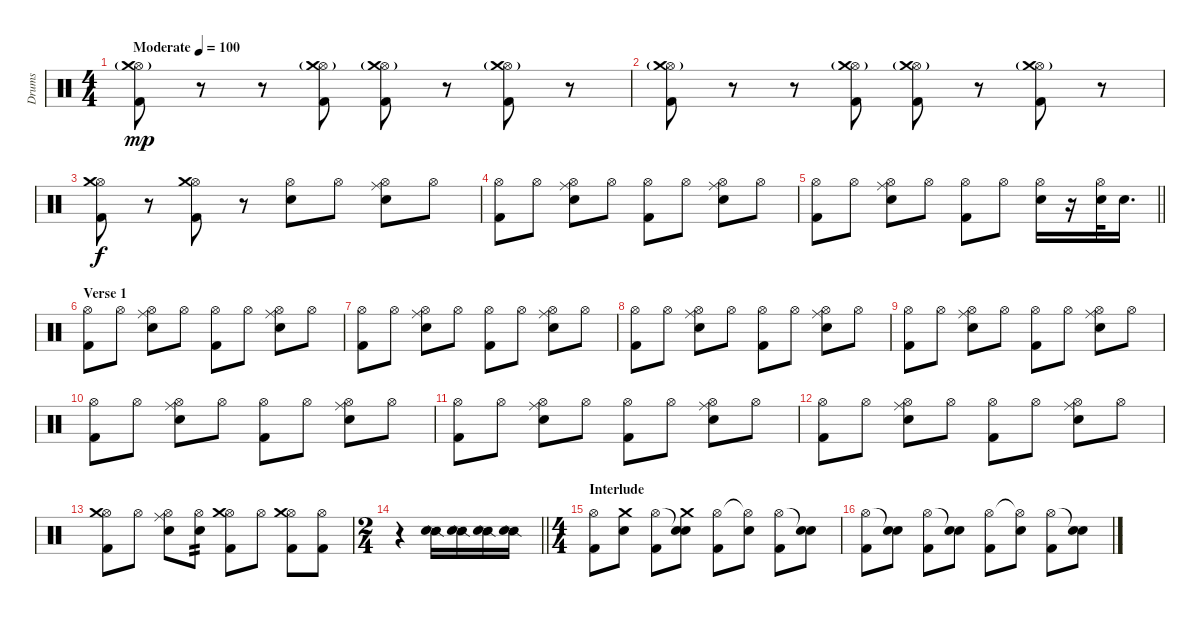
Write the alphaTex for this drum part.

\track ("Drums" "Drums") {instrument percussion}
\staff {score}
\articulation defaults
\ts (4 4)
\tempo (100 "Moderate")
\clef neutral
\ks c
("Hi-Hat (open)" "Crash medium (hit)"{g} "Kick (hit) 2").8{dy mp} r.8 r.8 ("Hi-Hat (open)" "Crash medium (hit)"{g} "Kick (hit) 2").8 ("Hi-Hat (open)" "Crash medium (hit)"{g} "Kick (hit) 2").8 r.8 ("Hi-Hat (open)" "Crash medium (hit)"{g} "Kick (hit) 2").8 r.8 |
("Hi-Hat (open)" "Crash medium (hit)"{g} "Kick (hit) 2").8 r.8 r.8 ("Hi-Hat (open)" "Crash medium (hit)"{g} "Kick (hit) 2").8 ("Hi-Hat (open)" "Crash medium (hit)"{g} "Kick (hit) 2").8 r.8 ("Hi-Hat (open)" "Crash medium (hit)"{g} "Kick (hit) 2").8 r.8 |
("Hi-Hat (open)" "Crash medium (hit)" "Kick (hit) 2").8{dy f} r.8 ("Hi-Hat (open)" "Crash medium (hit)" "Kick (hit) 2").8 r.8 ("Hi-Hat (open)" "Snare (hit) 2").8 "Hi-Hat (open)".8 ("Hi-Hat (open)" "Ride (middle)" "Snare (hit) 2").8 "Hi-Hat (open)".8 |
("Hi-Hat (open)" "Kick (hit) 2").8 "Hi-Hat (open)".8 ("Hi-Hat (open)" "Ride (middle)" "Snare (hit) 2").8 "Hi-Hat (open)".8 ("Hi-Hat (open)" "Kick (hit) 2").8 "Hi-Hat (open)".8 ("Hi-Hat (open)" "Ride (middle)" "Snare (hit) 2").8 "Hi-Hat (open)".8 |
\barLineRight lightlight
("Hi-Hat (open)" "Kick (hit) 2").8 "Hi-Hat (open)".8 ("Hi-Hat (open)" "Ride (middle)" "Snare (hit) 2").8 "Hi-Hat (open)".8 ("Hi-Hat (open)" "Kick (hit) 2").8 "Hi-Hat (open)".8 ("Hi-Hat (open)" "Snare (hit) 2").16 r.16 ("Hi-Hat (open)" "Snare (hit) 2").32 "Snare (hit) 2".16{d} |
\section ("" "Verse 1")
("Hi-Hat (open)" "Kick (hit) 2").8 "Hi-Hat (open)".8 ("Hi-Hat (open)" "Ride (middle)" "Snare (hit) 2").8 "Hi-Hat (open)".8 ("Hi-Hat (open)" "Kick (hit) 2").8 "Hi-Hat (open)".8 ("Hi-Hat (open)" "Ride (middle)" "Snare (hit) 2").8 "Hi-Hat (open)".8 |
("Hi-Hat (open)" "Kick (hit) 2").8 "Hi-Hat (open)".8 ("Hi-Hat (open)" "Ride (middle)" "Snare (hit) 2").8 "Hi-Hat (open)".8 ("Hi-Hat (open)" "Kick (hit) 2").8 "Hi-Hat (open)".8 ("Hi-Hat (open)" "Ride (middle)" "Snare (hit) 2").8 "Hi-Hat (open)".8 |
("Hi-Hat (open)" "Kick (hit) 2").8 "Hi-Hat (open)".8 ("Hi-Hat (open)" "Ride (middle)" "Snare (hit) 2").8 "Hi-Hat (open)".8 ("Hi-Hat (open)" "Kick (hit) 2").8 "Hi-Hat (open)".8 ("Hi-Hat (open)" "Ride (middle)" "Snare (hit) 2").8 "Hi-Hat (open)".8 |
("Hi-Hat (open)" "Kick (hit) 2").8 "Hi-Hat (open)".8 ("Hi-Hat (open)" "Ride (middle)" "Snare (hit) 2").8 "Hi-Hat (open)".8 ("Hi-Hat (open)" "Kick (hit) 2").8 "Hi-Hat (open)".8 ("Hi-Hat (open)" "Ride (middle)" "Snare (hit) 2").8 "Hi-Hat (open)".8 |
("Hi-Hat (open)" "Kick (hit) 2").8 "Hi-Hat (open)".8 ("Hi-Hat (open)" "Ride (middle)" "Snare (hit) 2").8 "Hi-Hat (open)".8 ("Hi-Hat (open)" "Kick (hit) 2").8 "Hi-Hat (open)".8 ("Hi-Hat (open)" "Ride (middle)" "Snare (hit) 2").8 "Hi-Hat (open)".8 |
("Hi-Hat (open)" "Kick (hit) 2").8 "Hi-Hat (open)".8 ("Hi-Hat (open)" "Ride (middle)" "Snare (hit) 2").8 "Hi-Hat (open)".8 ("Hi-Hat (open)" "Kick (hit) 2").8 "Hi-Hat (open)".8 ("Hi-Hat (open)" "Ride (middle)" "Snare (hit) 2").8 "Hi-Hat (open)".8 |
("Hi-Hat (open)" "Kick (hit) 2").8 "Hi-Hat (open)".8 ("Hi-Hat (open)" "Ride (middle)" "Snare (hit) 2").8 "Hi-Hat (open)".8 ("Hi-Hat (open)" "Kick (hit) 2").8 "Hi-Hat (open)".8 ("Hi-Hat (open)" "Ride (middle)" "Snare (hit) 2").8 "Hi-Hat (open)".8 |
("Hi-Hat (open)" "Crash medium (hit)" "Kick (hit) 2").8 "Hi-Hat (open)".8 ("Hi-Hat (open)" "Ride (middle)" "Snare (hit) 2").8 ("Hi-Hat (open)" "Snare (hit) 2").8{tp 2} ("Hi-Hat (open)" "Crash medium (hit)" "Kick (hit) 2").8 "Hi-Hat (open)".8 ("Hi-Hat (open)" "Crash medium (hit)" "Kick (hit) 2").8 ("Hi-Hat (open)" "Kick (hit) 2").8 |
\ts (2 4)
\barLineRight lightlight
r.4 ("Snare (side stick) 2" "Snare (hit) 2").16 ("Snare (side stick) 2" "Snare (hit) 2").16 ("Snare (side stick) 2" "Snare (hit) 2").16 ("Snare (side stick) 2" "Snare (hit) 2").16 |
\ts (4 4)
\section ("" "Interlude")
("Hi-Hat (open)" "Kick (hit) 2").8 ("Crash medium (hit)" "Snare (hit) 2").8 ("Hi-Hat (open)" "Kick (hit) 2").8 ("Snare (hit)"{t} "Crash medium (hit)" "Snare (hit) 2").8 ("Hi-Hat (open)" "Kick (hit) 2").8 ("Hi-Hat (open)"{t} "Snare (hit) 2").8 ("Hi-Hat (open)" "Kick (hit) 2").8 ("Snare (hit)"{t} "Snare (hit) 2").8 |
("Hi-Hat (open)" "Kick (hit) 2").8 ("Snare (hit)"{t} "Snare (hit) 2").8 ("Hi-Hat (open)" "Kick (hit) 2").8 ("Snare (hit)"{t} "Snare (hit) 2").8 ("Hi-Hat (open)" "Kick (hit) 2").8 ("Hi-Hat (open)"{t} "Snare (hit) 2").8 ("Hi-Hat (open)" "Kick (hit) 2").8 ("Snare (hit)"{t} "Snare (hit) 2").8
